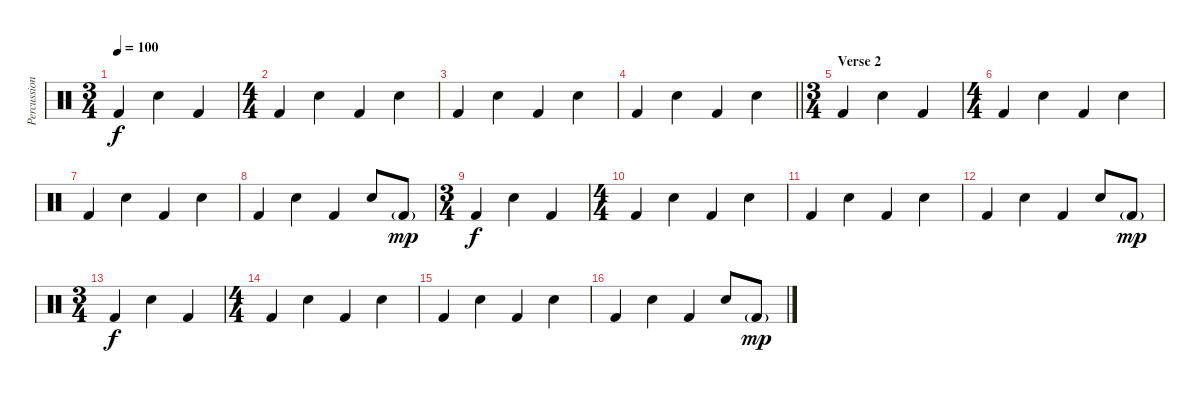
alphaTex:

\track ("Percussion" "Percussion") {instrument percussion}
\staff {score}
\articulation defaults
\ts (3 4)
\tempo 100
\clef neutral
\ks c "Kick (hit) 2".4{dy f} "Snare (hit) 2".4 "Kick (hit) 2".4
|
\ts (4 4)
"Kick (hit) 2".4 "Snare (hit) 2".4 "Kick (hit) 2".4 "Snare (hit) 2".4 |
"Kick (hit) 2".4 "Snare (hit) 2".4 "Kick (hit) 2".4 "Snare (hit) 2".4 |
\barLineRight lightlight "Kick (hit) 2".4 "Snare (hit) 2".4 "Kick (hit) 2".4 "Snare (hit) 2".4
|
\ts (3 4)
\section ("" "Verse 2")
"Kick (hit) 2".4 "Snare (hit) 2".4 "Kick (hit) 2".4 |
\ts (4 4)
"Kick (hit) 2".4 "Snare (hit) 2".4 "Kick (hit) 2".4 "Snare (hit) 2".4 |
"Kick (hit) 2".4 "Snare (hit) 2".4 "Kick (hit) 2".4 "Snare (hit) 2".4 |
"Kick (hit) 2".4 "Snare (hit) 2".4 "Kick (hit) 2".4 "Snare (hit) 2".8 "Kick (hit) 2"{g}.8{dy mp} |
\ts (3 4)
"Kick (hit) 2".4{dy f} "Snare (hit) 2".4 "Kick (hit) 2".4 |
\ts (4 4)
"Kick (hit) 2".4 "Snare (hit) 2".4 "Kick (hit) 2".4 "Snare (hit) 2".4 |
"Kick (hit) 2".4 "Snare (hit) 2".4 "Kick (hit) 2".4 "Snare (hit) 2".4 |
"Kick (hit) 2".4 "Snare (hit) 2".4 "Kick (hit) 2".4 "Snare (hit) 2".8 "Kick (hit) 2"{g}.8{dy mp} |
\ts (3 4)
"Kick (hit) 2".4{dy f} "Snare (hit) 2".4 "Kick (hit) 2".4 |
\ts (4 4)
"Kick (hit) 2".4 "Snare (hit) 2".4 "Kick (hit) 2".4 "Snare (hit) 2".4 |
"Kick (hit) 2".4 "Snare (hit) 2".4 "Kick (hit) 2".4 "Snare (hit) 2".4 |
"Kick (hit) 2".4 "Snare (hit) 2".4 "Kick (hit) 2".4 "Snare (hit) 2".8 "Kick (hit) 2"{g}.8{dy mp}
